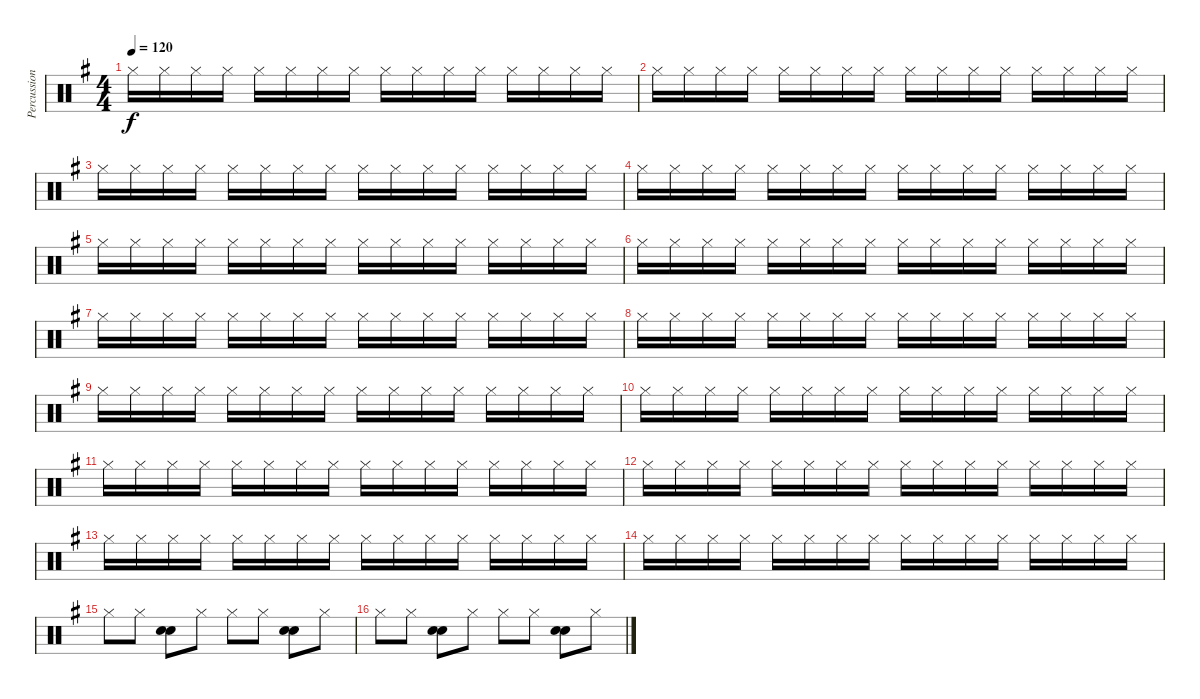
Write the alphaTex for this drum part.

\track ("Percussions" "Percussion") {instrument percussion}
\staff {score}
\articulation defaults
\ts (4 4)
\tempo 120
\clef neutral
\ks g "Hi-Hat (closed)".16{dy f} "Hi-Hat (closed)".16 "Hi-Hat (closed)".16 "Hi-Hat (closed)".16 "Hi-Hat (closed)".16 "Hi-Hat (closed)".16 "Hi-Hat (closed)".16 "Hi-Hat (closed)".16 "Hi-Hat (closed)".16 "Hi-Hat (closed)".16 "Hi-Hat (closed)".16 "Hi-Hat (closed)".16 "Hi-Hat (closed)".16 "Hi-Hat (closed)".16 "Hi-Hat (closed)".16 "Hi-Hat (closed)".16
|
"Hi-Hat (closed)".16 "Hi-Hat (closed)".16 "Hi-Hat (closed)".16 "Hi-Hat (closed)".16 "Hi-Hat (closed)".16 "Hi-Hat (closed)".16 "Hi-Hat (closed)".16 "Hi-Hat (closed)".16 "Hi-Hat (closed)".16 "Hi-Hat (closed)".16 "Hi-Hat (closed)".16 "Hi-Hat (closed)".16 "Hi-Hat (closed)".16 "Hi-Hat (closed)".16 "Hi-Hat (closed)".16 "Hi-Hat (closed)".16 |
"Hi-Hat (closed)".16 "Hi-Hat (closed)".16 "Hi-Hat (closed)".16 "Hi-Hat (closed)".16 "Hi-Hat (closed)".16 "Hi-Hat (closed)".16 "Hi-Hat (closed)".16 "Hi-Hat (closed)".16 "Hi-Hat (closed)".16 "Hi-Hat (closed)".16 "Hi-Hat (closed)".16 "Hi-Hat (closed)".16 "Hi-Hat (closed)".16 "Hi-Hat (closed)".16 "Hi-Hat (closed)".16 "Hi-Hat (closed)".16 |
"Hi-Hat (closed)".16 "Hi-Hat (closed)".16 "Hi-Hat (closed)".16 "Hi-Hat (closed)".16 "Hi-Hat (closed)".16 "Hi-Hat (closed)".16 "Hi-Hat (closed)".16 "Hi-Hat (closed)".16 "Hi-Hat (closed)".16 "Hi-Hat (closed)".16 "Hi-Hat (closed)".16 "Hi-Hat (closed)".16 "Hi-Hat (closed)".16 "Hi-Hat (closed)".16 "Hi-Hat (closed)".16 "Hi-Hat (closed)".16 |
"Hi-Hat (closed)".16 "Hi-Hat (closed)".16 "Hi-Hat (closed)".16 "Hi-Hat (closed)".16 "Hi-Hat (closed)".16 "Hi-Hat (closed)".16 "Hi-Hat (closed)".16 "Hi-Hat (closed)".16 "Hi-Hat (closed)".16 "Hi-Hat (closed)".16 "Hi-Hat (closed)".16 "Hi-Hat (closed)".16 "Hi-Hat (closed)".16 "Hi-Hat (closed)".16 "Hi-Hat (closed)".16 "Hi-Hat (closed)".16 |
"Hi-Hat (closed)".16 "Hi-Hat (closed)".16 "Hi-Hat (closed)".16 "Hi-Hat (closed)".16 "Hi-Hat (closed)".16 "Hi-Hat (closed)".16 "Hi-Hat (closed)".16 "Hi-Hat (closed)".16 "Hi-Hat (closed)".16 "Hi-Hat (closed)".16 "Hi-Hat (closed)".16 "Hi-Hat (closed)".16 "Hi-Hat (closed)".16 "Hi-Hat (closed)".16 "Hi-Hat (closed)".16 "Hi-Hat (closed)".16 |
"Hi-Hat (closed)".16 "Hi-Hat (closed)".16 "Hi-Hat (closed)".16 "Hi-Hat (closed)".16 "Hi-Hat (closed)".16 "Hi-Hat (closed)".16 "Hi-Hat (closed)".16 "Hi-Hat (closed)".16 "Hi-Hat (closed)".16 "Hi-Hat (closed)".16 "Hi-Hat (closed)".16 "Hi-Hat (closed)".16 "Hi-Hat (closed)".16 "Hi-Hat (closed)".16 "Hi-Hat (closed)".16 "Hi-Hat (closed)".16 |
"Hi-Hat (closed)".16 "Hi-Hat (closed)".16 "Hi-Hat (closed)".16 "Hi-Hat (closed)".16 "Hi-Hat (closed)".16 "Hi-Hat (closed)".16 "Hi-Hat (closed)".16 "Hi-Hat (closed)".16 "Hi-Hat (closed)".16 "Hi-Hat (closed)".16 "Hi-Hat (closed)".16 "Hi-Hat (closed)".16 "Hi-Hat (closed)".16 "Hi-Hat (closed)".16 "Hi-Hat (closed)".16 "Hi-Hat (closed)".16 |
"Hi-Hat (closed)".16 "Hi-Hat (closed)".16 "Hi-Hat (closed)".16 "Hi-Hat (closed)".16 "Hi-Hat (closed)".16 "Hi-Hat (closed)".16 "Hi-Hat (closed)".16 "Hi-Hat (closed)".16 "Hi-Hat (closed)".16 "Hi-Hat (closed)".16 "Hi-Hat (closed)".16 "Hi-Hat (closed)".16 "Hi-Hat (closed)".16 "Hi-Hat (closed)".16 "Hi-Hat (closed)".16 "Hi-Hat (closed)".16 |
"Hi-Hat (closed)".16 "Hi-Hat (closed)".16 "Hi-Hat (closed)".16 "Hi-Hat (closed)".16 "Hi-Hat (closed)".16 "Hi-Hat (closed)".16 "Hi-Hat (closed)".16 "Hi-Hat (closed)".16 "Hi-Hat (closed)".16 "Hi-Hat (closed)".16 "Hi-Hat (closed)".16 "Hi-Hat (closed)".16 "Hi-Hat (closed)".16 "Hi-Hat (closed)".16 "Hi-Hat (closed)".16 "Hi-Hat (closed)".16 |
"Hi-Hat (closed)".16 "Hi-Hat (closed)".16 "Hi-Hat (closed)".16 "Hi-Hat (closed)".16 "Hi-Hat (closed)".16 "Hi-Hat (closed)".16 "Hi-Hat (closed)".16 "Hi-Hat (closed)".16 "Hi-Hat (closed)".16 "Hi-Hat (closed)".16 "Hi-Hat (closed)".16 "Hi-Hat (closed)".16 "Hi-Hat (closed)".16 "Hi-Hat (closed)".16 "Hi-Hat (closed)".16 "Hi-Hat (closed)".16 |
"Hi-Hat (closed)".16 "Hi-Hat (closed)".16 "Hi-Hat (closed)".16 "Hi-Hat (closed)".16 "Hi-Hat (closed)".16 "Hi-Hat (closed)".16 "Hi-Hat (closed)".16 "Hi-Hat (closed)".16 "Hi-Hat (closed)".16 "Hi-Hat (closed)".16 "Hi-Hat (closed)".16 "Hi-Hat (closed)".16 "Hi-Hat (closed)".16 "Hi-Hat (closed)".16 "Hi-Hat (closed)".16 "Hi-Hat (closed)".16 |
"Hi-Hat (closed)".16 "Hi-Hat (closed)".16 "Hi-Hat (closed)".16 "Hi-Hat (closed)".16 "Hi-Hat (closed)".16 "Hi-Hat (closed)".16 "Hi-Hat (closed)".16 "Hi-Hat (closed)".16 "Hi-Hat (closed)".16 "Hi-Hat (closed)".16 "Hi-Hat (closed)".16 "Hi-Hat (closed)".16 "Hi-Hat (closed)".16 "Hi-Hat (closed)".16 "Hi-Hat (closed)".16 "Hi-Hat (closed)".16 |
"Hi-Hat (closed)".16 "Hi-Hat (closed)".16 "Hi-Hat (closed)".16 "Hi-Hat (closed)".16 "Hi-Hat (closed)".16 "Hi-Hat (closed)".16 "Hi-Hat (closed)".16 "Hi-Hat (closed)".16 "Hi-Hat (closed)".16 "Hi-Hat (closed)".16 "Hi-Hat (closed)".16 "Hi-Hat (closed)".16 "Hi-Hat (closed)".16 "Hi-Hat (closed)".16 "Hi-Hat (closed)".16 "Hi-Hat (closed)".16 |
"Hi-Hat (closed)".8{volume 13} "Hi-Hat (closed)".8 ("Snare (hit) 2" "Electric Snare (hit)").8 "Hi-Hat (closed)".8 "Hi-Hat (closed)".8 "Hi-Hat (closed)".8 ("Snare (hit) 2" "Electric Snare (hit)").8 "Hi-Hat (closed)".8 |
"Hi-Hat (closed)".8 "Hi-Hat (closed)".8 ("Snare (hit) 2" "Electric Snare (hit)").8 "Hi-Hat (closed)".8 "Hi-Hat (closed)".8 "Hi-Hat (closed)".8 ("Snare (hit) 2" "Electric Snare (hit)").8 "Hi-Hat (closed)".8
